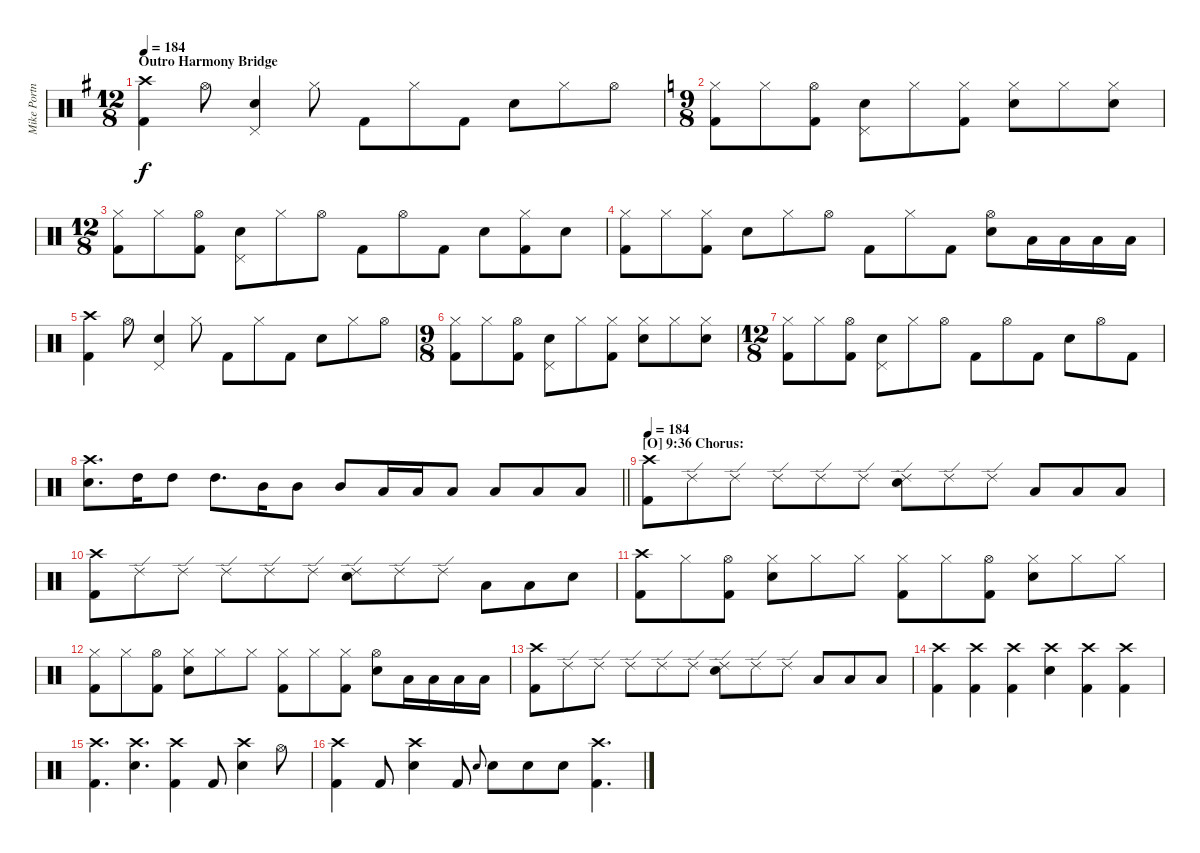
\track ("Mike Portnoy - Drum" "Mike Portn") {instrument percussion}
\staff {score}
\articulation defaults
\ts (12 8)
\section ("" "Outro Harmony Bridge")
\tempo 184
\clef neutral
\ks g
("Crash high (hit)" "Kick (hit) 2").4{dy f} "Hi-Hat (open)".8 ("Electric Snare (hit)" "Pedal Hi-Hat (hit)").4 "Hi-Hat (closed)".8 "Kick (hit) 2".8 "Hi-Hat (closed)".8 "Kick (hit) 2".8 "Electric Snare (hit)".8 "Hi-Hat (closed)".8 "Hi-Hat (open)".8 |
\ts (9 8)
\ks c
("Hi-Hat (closed)" "Kick (hit) 2").8 "Hi-Hat (closed)".8 ("Hi-Hat (open)" "Kick (hit) 2").8 ("Electric Snare (hit)" "Pedal Hi-Hat (hit)").8 "Hi-Hat (closed)".8 ("Hi-Hat (closed)" "Kick (hit) 2").8 ("Hi-Hat (closed)" "Electric Snare (hit)").8 "Hi-Hat (closed)".8 ("Hi-Hat (closed)" "Electric Snare (hit)").8 |
\ts (12 8)
("Hi-Hat (closed)" "Kick (hit) 2").8 "Hi-Hat (closed)".8 ("Hi-Hat (open)" "Kick (hit) 2").8 ("Electric Snare (hit)" "Pedal Hi-Hat (hit)").8 "Hi-Hat (closed)".8 "Hi-Hat (open)".8 "Kick (hit) 2".8 "Hi-Hat (open)".8 "Kick (hit) 2".8 "Electric Snare (hit)".8 ("Hi-Hat (closed)" "Kick (hit) 2").8 "Electric Snare (hit)".8 |
("Hi-Hat (closed)" "Kick (hit) 2").8 "Hi-Hat (closed)".8 ("Hi-Hat (closed)" "Kick (hit) 2").8 "Electric Snare (hit)".8 "Hi-Hat (closed)".8 "Hi-Hat (open)".8 "Kick (hit) 2".8 "Hi-Hat (closed)".8 "Kick (hit) 2".8 ("Hi-Hat (open)" "Electric Snare (hit)").8 "Low Tom (hit)".16 "Low Tom (hit)".16 "Low Tom (hit)".16 "Low Tom (hit)".16 |
("Crash high (hit)" "Kick (hit) 2").4 "Hi-Hat (open)".8 ("Electric Snare (hit)" "Pedal Hi-Hat (hit)").4 "Hi-Hat (closed)".8 "Kick (hit) 2".8 "Hi-Hat (closed)".8 "Kick (hit) 2".8 "Electric Snare (hit)".8 "Hi-Hat (closed)".8 "Hi-Hat (open)".8 |
\ts (9 8)
("Hi-Hat (closed)" "Kick (hit) 2").8 "Hi-Hat (closed)".8 ("Hi-Hat (open)" "Kick (hit) 2").8 ("Electric Snare (hit)" "Pedal Hi-Hat (hit)").8 "Hi-Hat (closed)".8 ("Hi-Hat (closed)" "Kick (hit) 2").8 ("Hi-Hat (closed)" "Electric Snare (hit)").8 "Hi-Hat (closed)".8 ("Hi-Hat (closed)" "Electric Snare (hit)").8 |
\ts (12 8)
("Hi-Hat (closed)" "Kick (hit) 2").8 "Hi-Hat (closed)".8 ("Hi-Hat (open)" "Kick (hit) 2").8 ("Electric Snare (hit)" "Pedal Hi-Hat (hit)").8 "Hi-Hat (closed)".8 "Hi-Hat (open)".8 "Kick (hit) 2".8 "Hi-Hat (open)".8 "Kick (hit) 2".8 "Electric Snare (hit)".8 "Hi-Hat (open)".8 "Kick (hit) 2".8 |
\barLineRight lightlight
("Crash high (hit)" "Electric Snare (hit)").8{d} "High Tom (hit)".16 "High Tom (hit)".8 "High Tom (hit)".8{d} "Mid Tom (hit)".16 "Mid Tom (hit)".8 "Mid Tom (hit)".8 "Low Tom (hit)".16 "Low Tom (hit)".16 "Low Tom (hit)".8 "Low Tom (hit)".8 "Low Tom (hit)".8 "Low Tom (hit)".8 |
\section ("" "[O] 9:36 Chorus:")
\tempo 184
("Crash high (hit)" "Kick (hit) 2").8 "Ride (edge) 2".8 "Ride (edge) 2".8 "Ride (edge) 2".8 "Ride (edge) 2".8 "Ride (edge) 2".8 ("Ride (edge) 2" "Electric Snare (hit)").8 "Ride (edge) 2".8 "Ride (edge) 2".8 "Low Tom (hit)".8 "Low Tom (hit)".8 "Low Tom (hit)".8 |
("Crash high (hit)" "Kick (hit) 2").8 "Ride (edge) 2".8 "Ride (edge) 2".8 "Ride (edge) 2".8 "Ride (edge) 2".8 "Ride (edge) 2".8 ("Ride (edge) 2" "Electric Snare (hit)").8 "Ride (edge) 2".8 "Ride (edge) 2".8 "Low Tom (hit)".8 "Low Tom (hit)".8 "Snare (hit) 2".8 |
("Crash high (hit)" "Kick (hit) 2").8 "Hi-Hat (closed)".8 ("Hi-Hat (open)" "Kick (hit) 2").8 ("Hi-Hat (closed)" "Electric Snare (hit)").8 "Hi-Hat (closed)".8 "Hi-Hat (closed)".8 ("Hi-Hat (closed)" "Kick (hit) 2").8 "Hi-Hat (closed)".8 ("Hi-Hat (open)" "Kick (hit) 2").8 ("Hi-Hat (closed)" "Electric Snare (hit)").8 "Hi-Hat (closed)".8 "Hi-Hat (closed)".8 |
("Hi-Hat (closed)" "Kick (hit) 2").8 "Hi-Hat (closed)".8 ("Hi-Hat (open)" "Kick (hit) 2").8 ("Hi-Hat (closed)" "Electric Snare (hit)").8 "Hi-Hat (closed)".8 "Hi-Hat (closed)".8 ("Hi-Hat (closed)" "Kick (hit) 2").8 "Hi-Hat (closed)".8 ("Hi-Hat (closed)" "Kick (hit) 2").8 ("Hi-Hat (open)" "Electric Snare (hit)").8 "Low Tom (hit)".16 "Low Tom (hit)".16 "Low Tom (hit)".16 "Low Tom (hit)".16 |
("Crash high (hit)" "Kick (hit) 2").8 "Ride (edge) 2".8 "Ride (edge) 2".8 "Ride (edge) 2".8 "Ride (edge) 2".8 "Ride (edge) 2".8 ("Ride (edge) 2" "Electric Snare (hit)").8 "Ride (edge) 2".8 "Ride (edge) 2".8 "Low Tom (hit)".8 "Low Tom (hit)".8 "Low Tom (hit)".8 |
("Crash high (hit)" "Kick (hit) 2").4 ("Crash high (hit)" "Kick (hit) 2").4 ("Crash high (hit)" "Kick (hit) 2").4 ("Crash high (hit)" "Electric Snare (hit)").4 ("Crash high (hit)" "Kick (hit) 2").4 ("Crash high (hit)" "Kick (hit) 2").4 |
("Crash high (hit)" "Kick (hit) 2").4{d} ("Crash high (hit)" "Electric Snare (hit)").4{d} ("Crash high (hit)" "Kick (hit) 2").4 "Kick (hit) 2".8 ("Crash high (hit)" "Electric Snare (hit)").4 "Hi-Hat (open)".8 |
("Crash high (hit)" "Kick (hit) 2").4 "Kick (hit) 2".8 ("Crash high (hit)" "Electric Snare (hit)").4 "Kick (hit) 2".8 "Electric Snare (hit)".8{gr onbeat} "Electric Snare (hit)".8 "Electric Snare (hit)".8 "Electric Snare (hit)".8 ("Crash high (hit)" "Kick (hit) 2").4{d}
